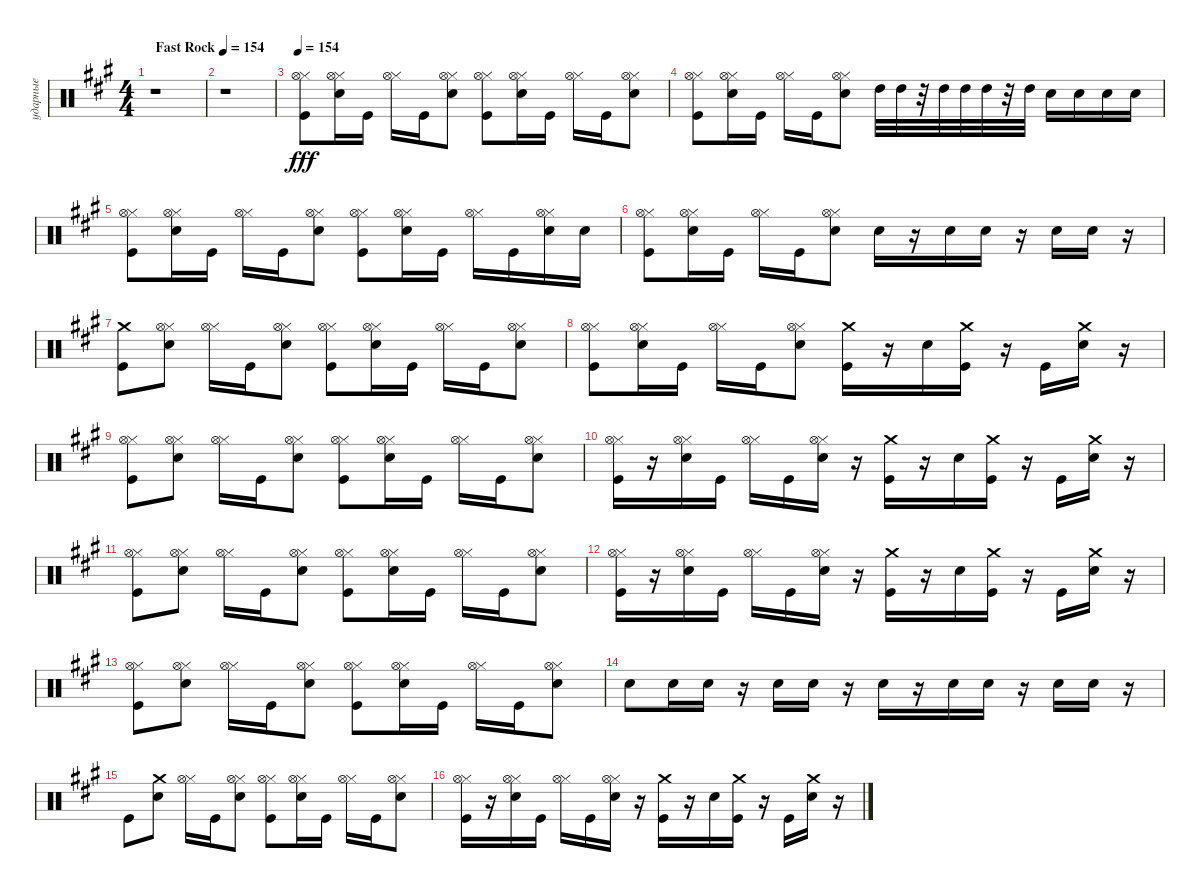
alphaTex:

\track ("ударные" "ударные") {instrument percussion}
\staff {score}
\articulation defaults
\ts (4 4)
\tempo (154 "Fast Rock")
\tempo 90
\tempo (154 "Fast Rock")
\clef neutral
\ks f#minor
r.1{dy fff} |
r.1 |
\tempo 154
("Kick (hit)" "Hi-Hat (closed)" "Hi-Hat (open)").8 ("Snare (hit) 2" "Hi-Hat (closed)" "Hi-Hat (open)").16 "Kick (hit)".16 ("Hi-Hat (closed)" "Hi-Hat (open)").16 "Kick (hit)".16 ("Snare (hit) 2" "Hi-Hat (closed)" "Hi-Hat (open)").8 ("Kick (hit)" "Hi-Hat (closed)" "Hi-Hat (open)").8 ("Snare (hit) 2" "Hi-Hat (closed)" "Hi-Hat (open)").16 "Kick (hit)".16 ("Hi-Hat (closed)" "Hi-Hat (open)").16 "Kick (hit)".16 ("Snare (hit) 2" "Hi-Hat (closed)" "Hi-Hat (open)").8 |
("Kick (hit)" "Hi-Hat (closed)" "Hi-Hat (open)").8 ("Snare (hit) 2" "Hi-Hat (closed)" "Hi-Hat (open)").16 "Kick (hit)".16 ("Hi-Hat (closed)" "Hi-Hat (open)").16 "Kick (hit)".16 ("Snare (hit) 2" "Hi-Hat (closed)" "Hi-Hat (open)").8 "High Tom (hit)".32 "High Tom (hit)".32 r.32 "High Tom (hit)".32 "High Tom (hit)".32 "High Tom (hit)".32 r.32 "High Tom (hit)".32 "Snare (hit) 2".16 "Snare (hit) 2".16 "Snare (hit) 2".16 "Snare (hit) 2".16 |
("Kick (hit)" "Hi-Hat (closed)" "Hi-Hat (open)").8 ("Snare (hit) 2" "Hi-Hat (closed)" "Hi-Hat (open)").16 "Kick (hit)".16 ("Hi-Hat (closed)" "Hi-Hat (open)").16 "Kick (hit)".16 ("Snare (hit) 2" "Hi-Hat (closed)" "Hi-Hat (open)").8 ("Kick (hit)" "Hi-Hat (closed)" "Hi-Hat (open)").8 ("Snare (hit) 2" "Hi-Hat (closed)" "Hi-Hat (open)").16 "Kick (hit)".16 ("Hi-Hat (closed)" "Hi-Hat (open)").16 "Kick (hit)".16 ("Snare (hit) 2" "Hi-Hat (closed)" "Hi-Hat (open)").16 "Snare (hit) 2".16 |
("Kick (hit)" "Hi-Hat (closed)" "Hi-Hat (open)").8 ("Snare (hit) 2" "Hi-Hat (closed)" "Hi-Hat (open)").16 "Kick (hit)".16 ("Hi-Hat (closed)" "Hi-Hat (open)").16 "Kick (hit)".16 ("Snare (hit) 2" "Hi-Hat (closed)" "Hi-Hat (open)").8 "Snare (hit) 2".16 r.16 "Snare (hit) 2".16 "Snare (hit) 2".16 r.16 "Snare (hit) 2".16 "Snare (hit) 2".16 r.16 |
("Crash medium (hit)" "Kick (hit)").8 ("Snare (hit) 2" "Hi-Hat (closed)" "Hi-Hat (open)").8 ("Hi-Hat (closed)" "Hi-Hat (open)").16 "Kick (hit)".16 ("Snare (hit) 2" "Hi-Hat (closed)" "Hi-Hat (open)").8 ("Kick (hit)" "Hi-Hat (closed)" "Hi-Hat (open)").8 ("Snare (hit) 2" "Hi-Hat (closed)" "Hi-Hat (open)").16 "Kick (hit)".16 ("Hi-Hat (closed)" "Hi-Hat (open)").16 "Kick (hit)".16 ("Snare (hit) 2" "Hi-Hat (closed)" "Hi-Hat (open)").8 |
("Kick (hit)" "Hi-Hat (closed)" "Hi-Hat (open)").8 ("Snare (hit) 2" "Hi-Hat (closed)" "Hi-Hat (open)").16 "Kick (hit)".16 ("Hi-Hat (closed)" "Hi-Hat (open)").16 "Kick (hit)".16 ("Snare (hit) 2" "Hi-Hat (closed)" "Hi-Hat (open)").8 ("Crash medium (hit)" "Kick (hit)").16 r.16 "Snare (hit) 2".16 ("Crash medium (hit)" "Kick (hit)").16 r.16 "Kick (hit)".16 ("Crash medium (hit)" "Snare (hit) 2").16 r.16 |
("Hi-Hat (closed)" "Kick (hit)" "Hi-Hat (open)").8 ("Snare (hit) 2" "Hi-Hat (closed)" "Hi-Hat (open)").8 ("Hi-Hat (closed)" "Hi-Hat (open)").16 "Kick (hit)".16 ("Snare (hit) 2" "Hi-Hat (closed)" "Hi-Hat (open)").8 ("Kick (hit)" "Hi-Hat (closed)" "Hi-Hat (open)").8 ("Snare (hit) 2" "Hi-Hat (closed)" "Hi-Hat (open)").16 "Kick (hit)".16 ("Hi-Hat (closed)" "Hi-Hat (open)").16 "Kick (hit)".16 ("Snare (hit) 2" "Hi-Hat (closed)" "Hi-Hat (open)").8 |
("Hi-Hat (closed)" "Kick (hit)" "Hi-Hat (open)").16 r.16 ("Hi-Hat (closed)" "Snare (hit) 2" "Hi-Hat (open)").16 "Kick (hit)".16 ("Hi-Hat (closed)" "Hi-Hat (open)").16 "Kick (hit)".16 ("Hi-Hat (closed)" "Snare (hit) 2" "Hi-Hat (open)").16 r.16 ("Crash medium (hit)" "Kick (hit)").16 r.16 "Snare (hit) 2".16 ("Crash medium (hit)" "Kick (hit)").16 r.16 "Kick (hit)".16 ("Crash medium (hit)" "Snare (hit) 2").16 r.16 |
("Hi-Hat (closed)" "Kick (hit)" "Hi-Hat (open)").8 ("Snare (hit) 2" "Hi-Hat (closed)" "Hi-Hat (open)").8 ("Hi-Hat (closed)" "Hi-Hat (open)").16 "Kick (hit)".16 ("Snare (hit) 2" "Hi-Hat (closed)" "Hi-Hat (open)").8 ("Kick (hit)" "Hi-Hat (closed)" "Hi-Hat (open)").8 ("Snare (hit) 2" "Hi-Hat (closed)" "Hi-Hat (open)").16 "Kick (hit)".16 ("Hi-Hat (closed)" "Hi-Hat (open)").16 "Kick (hit)".16 ("Snare (hit) 2" "Hi-Hat (closed)" "Hi-Hat (open)").8 |
("Hi-Hat (closed)" "Kick (hit)" "Hi-Hat (open)").16 r.16 ("Hi-Hat (closed)" "Snare (hit) 2" "Hi-Hat (open)").16 "Kick (hit)".16 ("Hi-Hat (closed)" "Hi-Hat (open)").16 "Kick (hit)".16 ("Hi-Hat (closed)" "Snare (hit) 2" "Hi-Hat (open)").16 r.16 ("Crash medium (hit)" "Kick (hit)").16 r.16 "Snare (hit) 2".16 ("Crash medium (hit)" "Kick (hit)").16 r.16 "Kick (hit)".16 ("Crash medium (hit)" "Snare (hit) 2").16 r.16 |
("Hi-Hat (closed)" "Kick (hit)" "Hi-Hat (open)").8 ("Snare (hit) 2" "Hi-Hat (closed)" "Hi-Hat (open)").8 ("Hi-Hat (closed)" "Hi-Hat (open)").16 "Kick (hit)".16 ("Snare (hit) 2" "Hi-Hat (closed)" "Hi-Hat (open)").8 ("Kick (hit)" "Hi-Hat (closed)" "Hi-Hat (open)").8 ("Snare (hit) 2" "Hi-Hat (closed)" "Hi-Hat (open)").16 "Kick (hit)".16 ("Hi-Hat (closed)" "Hi-Hat (open)").16 "Kick (hit)".16 ("Snare (hit) 2" "Hi-Hat (closed)" "Hi-Hat (open)").8 |
"Snare (hit) 2".8 "Snare (hit) 2".16 "Snare (hit) 2".16 r.16 "Snare (hit) 2".16 "Snare (hit) 2".16 r.16 "Snare (hit) 2".16 r.16 "Snare (hit) 2".16 "Snare (hit) 2".16 r.16 "Snare (hit) 2".16 "Snare (hit) 2".16 r.16 |
"Kick (hit)".8 ("Crash medium (hit)" "Snare (hit) 2").8 ("Hi-Hat (closed)" "Hi-Hat (open)").16 "Kick (hit)".16 ("Snare (hit) 2" "Hi-Hat (closed)" "Hi-Hat (open)").8 ("Kick (hit)" "Hi-Hat (closed)" "Hi-Hat (open)").8 ("Snare (hit) 2" "Hi-Hat (closed)" "Hi-Hat (open)").16 "Kick (hit)".16 ("Hi-Hat (closed)" "Hi-Hat (open)").16 "Kick (hit)".16 ("Snare (hit) 2" "Hi-Hat (closed)" "Hi-Hat (open)").8 |
("Hi-Hat (closed)" "Kick (hit)" "Hi-Hat (open)").16 r.16 ("Hi-Hat (closed)" "Snare (hit) 2" "Hi-Hat (open)").16 "Kick (hit)".16 ("Hi-Hat (closed)" "Hi-Hat (open)").16 "Kick (hit)".16 ("Hi-Hat (closed)" "Snare (hit) 2" "Hi-Hat (open)").16 r.16 ("Crash medium (hit)" "Kick (hit)").16 r.16 "Snare (hit) 2".16 ("Crash medium (hit)" "Kick (hit)").16 r.16 "Kick (hit)".16 ("Crash medium (hit)" "Snare (hit) 2").16 r.16
